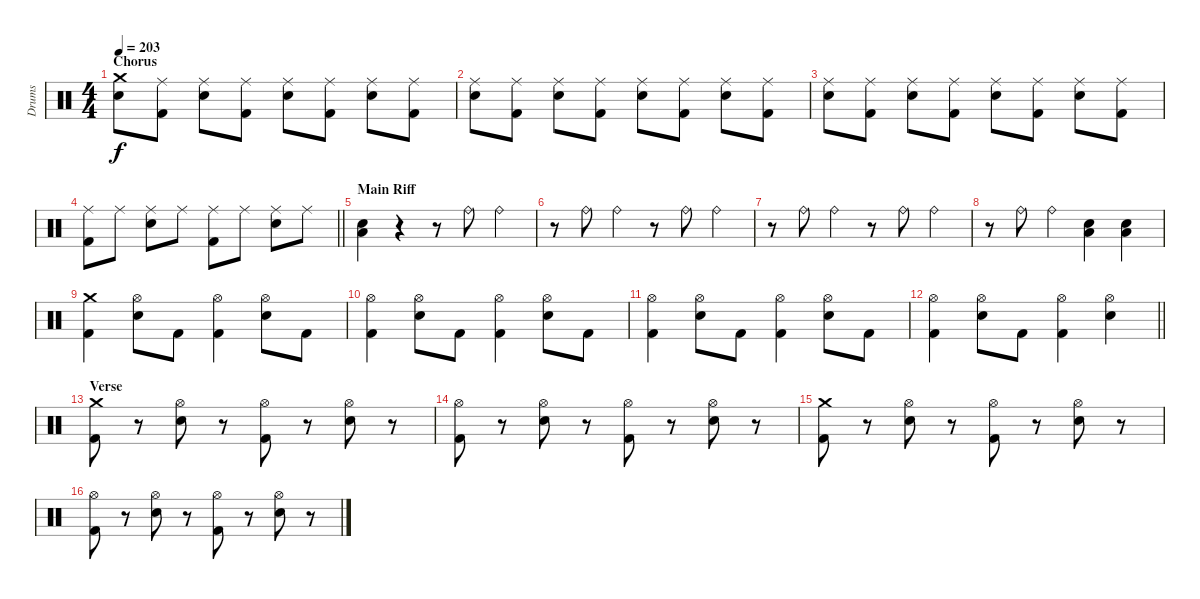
\track ("Drums" "Drums") {instrument percussion}
\staff {score}
\articulation defaults
\ts (4 4)
\section ("" "Chorus")
\tempo 203
\clef neutral
\ks c
("Crash medium (hit)" "Electric Snare (hit)").8{dy f} ("Ride (middle)" "Kick (hit) 2").8 ("Ride (middle)" "Electric Snare (hit)").8 ("Ride (middle)" "Kick (hit) 2").8 ("Ride (middle)" "Electric Snare (hit)").8 ("Ride (middle)" "Kick (hit) 2").8 ("Ride (middle)" "Electric Snare (hit)").8 ("Ride (middle)" "Kick (hit) 2").8 |
("Ride (middle)" "Electric Snare (hit)").8 ("Ride (middle)" "Kick (hit) 2").8 ("Ride (middle)" "Electric Snare (hit)").8 ("Ride (middle)" "Kick (hit) 2").8 ("Ride (middle)" "Electric Snare (hit)").8 ("Ride (middle)" "Kick (hit) 2").8 ("Ride (middle)" "Electric Snare (hit)").8 ("Ride (middle)" "Kick (hit) 2").8 |
("Ride (middle)" "Electric Snare (hit)").8 ("Ride (middle)" "Kick (hit) 2").8 ("Ride (middle)" "Electric Snare (hit)").8 ("Ride (middle)" "Kick (hit) 2").8 ("Ride (middle)" "Electric Snare (hit)").8 ("Ride (middle)" "Kick (hit) 2").8 ("Ride (middle)" "Electric Snare (hit)").8 ("Ride (middle)" "Kick (hit) 2").8 |
\barLineRight lightlight
("Ride (middle)" "Kick (hit) 2").8 "Ride (middle)".8 ("Ride (middle)" "Electric Snare (hit)").8 "Ride (middle)".8 ("Ride (middle)" "Kick (hit) 2").8 "Ride (middle)".8 ("Ride (middle)" "Electric Snare (hit)").8 "Ride (middle)".8 |
\section ("" "Main Riff")
("Low Tom (hit)" "Electric Snare (hit)").4 r.4 r.8 "Ride (bell)".8{volume 1} "Ride (bell)".4{volume 16} |
r.8 "Ride (bell)".8{volume 1} "Ride (bell)".4{volume 16} r.8 "Ride (bell)".8{volume 1} "Ride (bell)".4{volume 16} |
r.8 "Ride (bell)".8{volume 1} "Ride (bell)".4{volume 16} r.8 "Ride (bell)".8{volume 1} "Ride (bell)".4{volume 16} |
r.8 "Ride (bell)".8{volume 1} "Ride (bell)".4{volume 16} ("Low Tom (hit)" "Electric Snare (hit)").4 ("Low Tom (hit)" "Electric Snare (hit)").4 |
("Crash medium (hit)" "Kick (hit) 2").4 ("Hi-Hat (open)" "Electric Snare (hit)").8 "Kick (hit) 2".8 ("Hi-Hat (open)" "Kick (hit) 2").4 ("Hi-Hat (open)" "Electric Snare (hit)").8 "Kick (hit) 2".8 |
("Hi-Hat (open)" "Kick (hit) 2").4 ("Hi-Hat (open)" "Electric Snare (hit)").8 "Kick (hit) 2".8 ("Hi-Hat (open)" "Kick (hit) 2").4 ("Hi-Hat (open)" "Electric Snare (hit)").8 "Kick (hit) 2".8 |
("Hi-Hat (open)" "Kick (hit) 2").4 ("Hi-Hat (open)" "Electric Snare (hit)").8 "Kick (hit) 2".8 ("Hi-Hat (open)" "Kick (hit) 2").4 ("Hi-Hat (open)" "Electric Snare (hit)").8 "Kick (hit) 2".8 |
\barLineRight lightlight
("Hi-Hat (open)" "Kick (hit) 2").4 ("Hi-Hat (open)" "Electric Snare (hit)").8 "Kick (hit) 2".8 ("Hi-Hat (open)" "Kick (hit) 2").4 ("Hi-Hat (open)" "Electric Snare (hit)").4 |
\section ("" "Verse")
("Crash medium (hit)" "Kick (hit) 2").8 r.8 ("Hi-Hat (open)" "Electric Snare (hit)").8 r.8 ("Hi-Hat (open)" "Kick (hit) 2").8 r.8 ("Hi-Hat (open)" "Electric Snare (hit)").8 r.8 |
("Hi-Hat (open)" "Kick (hit) 2").8 r.8 ("Hi-Hat (open)" "Electric Snare (hit)").8 r.8 ("Hi-Hat (open)" "Kick (hit) 2").8 r.8 ("Hi-Hat (open)" "Electric Snare (hit)").8 r.8 |
("Crash medium (hit)" "Kick (hit) 2").8 r.8 ("Hi-Hat (open)" "Electric Snare (hit)").8 r.8 ("Hi-Hat (open)" "Kick (hit) 2").8 r.8 ("Hi-Hat (open)" "Electric Snare (hit)").8 r.8 |
("Hi-Hat (open)" "Kick (hit) 2").8 r.8 ("Hi-Hat (open)" "Electric Snare (hit)").8 r.8 ("Hi-Hat (open)" "Kick (hit) 2").8 r.8 ("Hi-Hat (open)" "Electric Snare (hit)").8 r.8
